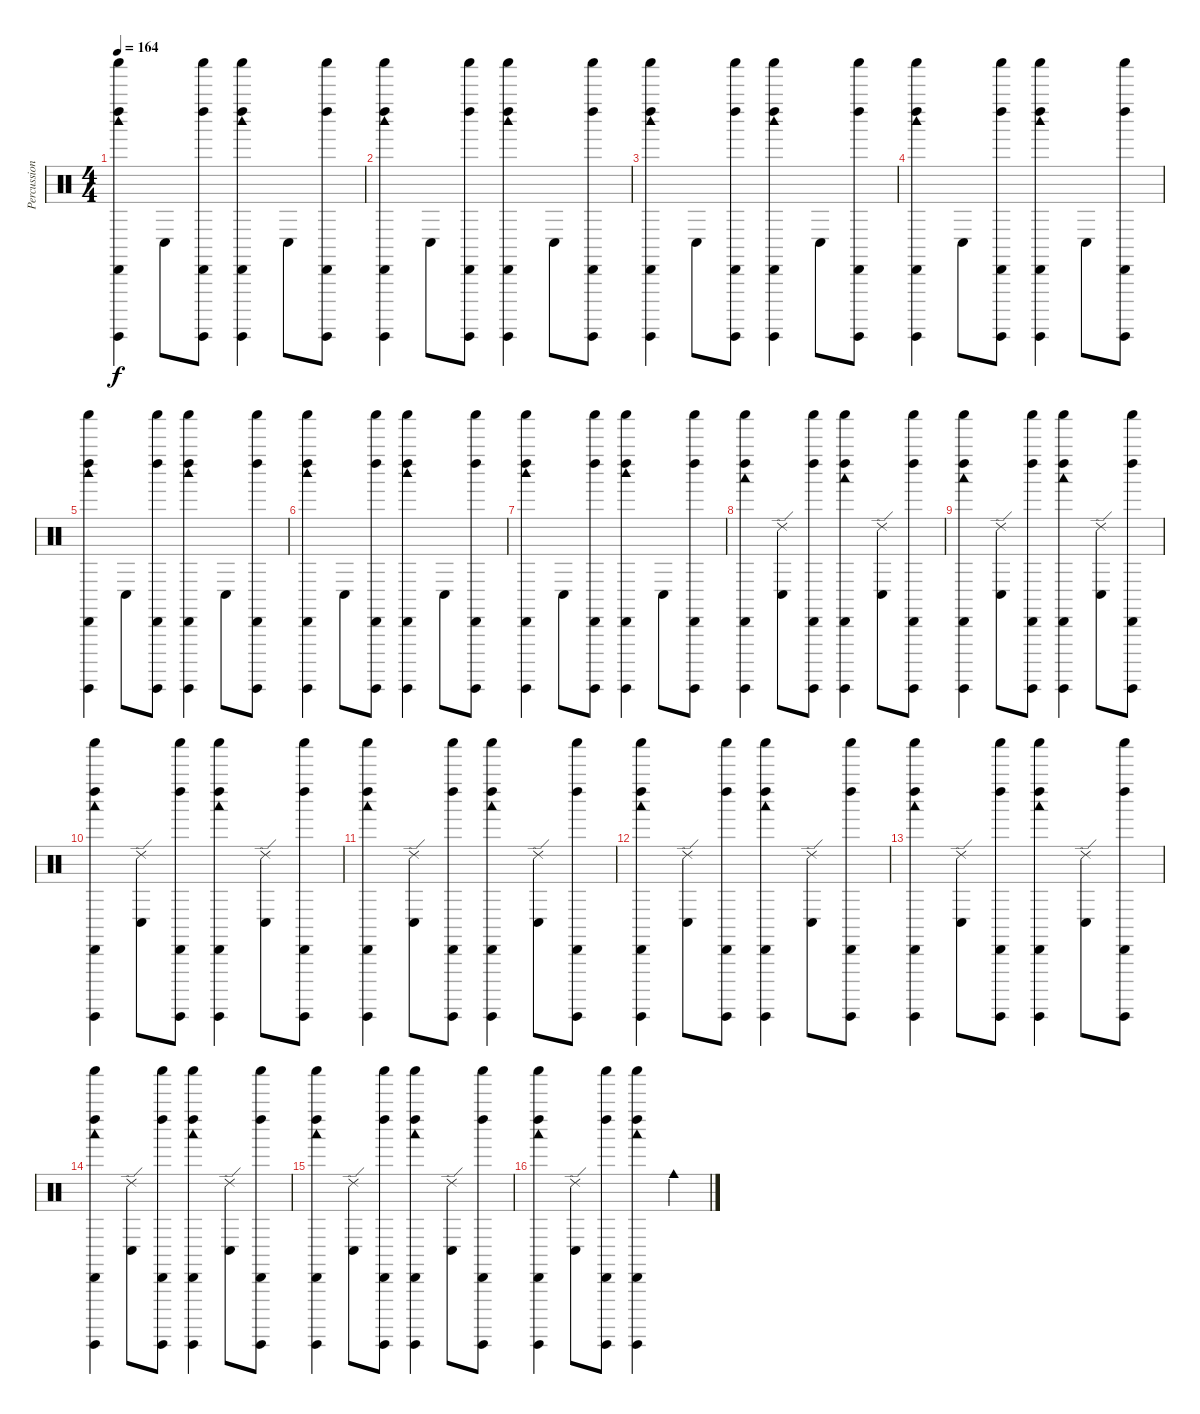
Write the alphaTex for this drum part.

\track ("Percussion" "Percussion") {instrument percussion}
\staff {score}
\articulation defaults
\ts (4 4)
\tempo 164
\clef neutral
\ks c
("Shaker (hit)" "Guiro (hit)" "Left Maraca (hit)" "Cabasa (hit)" "Woodblock high (hit)").4{dy f} "Conga low (hit)".8 ("Shaker (hit)" "Guiro (hit)" "Left Maraca (hit)" "Cabasa (hit)").8 ("Shaker (hit)" "Guiro (hit)" "Left Maraca (hit)" "Cabasa (hit)" "Woodblock high (hit)").4 "Conga low (hit)".8 ("Shaker (hit)" "Guiro (hit)" "Left Maraca (hit)" "Cabasa (hit)").8 |
("Shaker (hit)" "Guiro (hit)" "Left Maraca (hit)" "Cabasa (hit)" "Woodblock high (hit)").4 "Conga low (hit)".8 ("Shaker (hit)" "Guiro (hit)" "Left Maraca (hit)" "Cabasa (hit)").8 ("Shaker (hit)" "Guiro (hit)" "Left Maraca (hit)" "Cabasa (hit)" "Woodblock high (hit)").4 "Conga low (hit)".8 ("Shaker (hit)" "Guiro (hit)" "Left Maraca (hit)" "Cabasa (hit)").8 |
("Shaker (hit)" "Guiro (hit)" "Left Maraca (hit)" "Cabasa (hit)" "Woodblock high (hit)").4 "Conga low (hit)".8 ("Shaker (hit)" "Guiro (hit)" "Left Maraca (hit)" "Cabasa (hit)").8 ("Shaker (hit)" "Guiro (hit)" "Left Maraca (hit)" "Cabasa (hit)" "Woodblock high (hit)").4 "Conga low (hit)".8 ("Shaker (hit)" "Guiro (hit)" "Left Maraca (hit)" "Cabasa (hit)").8 |
("Shaker (hit)" "Guiro (hit)" "Left Maraca (hit)" "Cabasa (hit)" "Woodblock high (hit)").4 "Conga low (hit)".8 ("Shaker (hit)" "Guiro (hit)" "Left Maraca (hit)" "Cabasa (hit)").8 ("Shaker (hit)" "Guiro (hit)" "Left Maraca (hit)" "Cabasa (hit)" "Woodblock high (hit)").4 "Conga low (hit)".8 ("Shaker (hit)" "Guiro (hit)" "Left Maraca (hit)" "Cabasa (hit)").8 |
("Shaker (hit)" "Guiro (hit)" "Left Maraca (hit)" "Cabasa (hit)" "Woodblock high (hit)").4 "Conga low (hit)".8 ("Shaker (hit)" "Guiro (hit)" "Left Maraca (hit)" "Cabasa (hit)").8 ("Shaker (hit)" "Guiro (hit)" "Left Maraca (hit)" "Cabasa (hit)" "Woodblock high (hit)").4 "Conga low (hit)".8 ("Shaker (hit)" "Guiro (hit)" "Left Maraca (hit)" "Cabasa (hit)").8 |
("Shaker (hit)" "Guiro (hit)" "Left Maraca (hit)" "Cabasa (hit)" "Woodblock high (hit)").4 "Conga low (hit)".8 ("Shaker (hit)" "Guiro (hit)" "Left Maraca (hit)" "Cabasa (hit)").8 ("Shaker (hit)" "Guiro (hit)" "Left Maraca (hit)" "Cabasa (hit)" "Woodblock high (hit)").4 "Conga low (hit)".8 ("Shaker (hit)" "Guiro (hit)" "Left Maraca (hit)" "Cabasa (hit)").8 |
("Shaker (hit)" "Guiro (hit)" "Left Maraca (hit)" "Cabasa (hit)" "Woodblock high (hit)").4 "Conga low (hit)".8 ("Shaker (hit)" "Guiro (hit)" "Left Maraca (hit)" "Cabasa (hit)").8 ("Shaker (hit)" "Guiro (hit)" "Left Maraca (hit)" "Cabasa (hit)" "Woodblock high (hit)").4 "Conga low (hit)".8 ("Shaker (hit)" "Guiro (hit)" "Left Maraca (hit)" "Cabasa (hit)").8 |
("Shaker (hit)" "Guiro (hit)" "Left Maraca (hit)" "Cabasa (hit)" "Woodblock low (hit)").4 ("Ride (edge) 2" "Conga low (hit)").8 ("Shaker (hit)" "Guiro (hit)" "Left Maraca (hit)" "Cabasa (hit)").8 ("Shaker (hit)" "Guiro (hit)" "Left Maraca (hit)" "Cabasa (hit)" "Woodblock low (hit)").4 ("Ride (edge) 2" "Conga low (hit)").8 ("Shaker (hit)" "Guiro (hit)" "Left Maraca (hit)" "Cabasa (hit)").8 |
("Shaker (hit)" "Guiro (hit)" "Left Maraca (hit)" "Cabasa (hit)" "Woodblock low (hit)").4 ("Ride (edge) 2" "Conga low (hit)").8 ("Shaker (hit)" "Guiro (hit)" "Left Maraca (hit)" "Cabasa (hit)").8 ("Shaker (hit)" "Guiro (hit)" "Left Maraca (hit)" "Cabasa (hit)" "Woodblock low (hit)").4 ("Ride (edge) 2" "Conga low (hit)").8 ("Shaker (hit)" "Guiro (hit)" "Left Maraca (hit)" "Cabasa (hit)").8 |
("Shaker (hit)" "Guiro (hit)" "Left Maraca (hit)" "Cabasa (hit)" "Woodblock low (hit)").4 ("Ride (edge) 2" "Conga low (hit)").8 ("Shaker (hit)" "Guiro (hit)" "Left Maraca (hit)" "Cabasa (hit)").8 ("Shaker (hit)" "Guiro (hit)" "Left Maraca (hit)" "Cabasa (hit)" "Woodblock low (hit)").4 ("Ride (edge) 2" "Conga low (hit)").8 ("Shaker (hit)" "Guiro (hit)" "Left Maraca (hit)" "Cabasa (hit)").8 |
("Shaker (hit)" "Guiro (hit)" "Left Maraca (hit)" "Cabasa (hit)" "Woodblock low (hit)").4 ("Ride (edge) 2" "Conga low (hit)").8 ("Shaker (hit)" "Guiro (hit)" "Left Maraca (hit)" "Cabasa (hit)").8 ("Shaker (hit)" "Guiro (hit)" "Left Maraca (hit)" "Cabasa (hit)" "Woodblock low (hit)").4 ("Ride (edge) 2" "Conga low (hit)").8 ("Shaker (hit)" "Guiro (hit)" "Left Maraca (hit)" "Cabasa (hit)").8 |
("Shaker (hit)" "Guiro (hit)" "Left Maraca (hit)" "Cabasa (hit)" "Woodblock low (hit)").4 ("Ride (edge) 2" "Conga low (hit)").8 ("Shaker (hit)" "Guiro (hit)" "Left Maraca (hit)" "Cabasa (hit)").8 ("Shaker (hit)" "Guiro (hit)" "Left Maraca (hit)" "Cabasa (hit)" "Woodblock low (hit)").4 ("Ride (edge) 2" "Conga low (hit)").8 ("Shaker (hit)" "Guiro (hit)" "Left Maraca (hit)" "Cabasa (hit)").8 |
("Shaker (hit)" "Guiro (hit)" "Left Maraca (hit)" "Cabasa (hit)" "Woodblock low (hit)").4 ("Ride (edge) 2" "Conga low (hit)").8 ("Shaker (hit)" "Guiro (hit)" "Left Maraca (hit)" "Cabasa (hit)").8 ("Shaker (hit)" "Guiro (hit)" "Left Maraca (hit)" "Cabasa (hit)" "Woodblock low (hit)").4 ("Ride (edge) 2" "Conga low (hit)").8 ("Shaker (hit)" "Guiro (hit)" "Left Maraca (hit)" "Cabasa (hit)").8 |
("Shaker (hit)" "Guiro (hit)" "Left Maraca (hit)" "Cabasa (hit)" "Woodblock low (hit)").4 ("Ride (edge) 2" "Conga low (hit)").8 ("Shaker (hit)" "Guiro (hit)" "Left Maraca (hit)" "Cabasa (hit)").8 ("Shaker (hit)" "Guiro (hit)" "Left Maraca (hit)" "Cabasa (hit)" "Woodblock low (hit)").4 ("Ride (edge) 2" "Conga low (hit)").8 ("Shaker (hit)" "Guiro (hit)" "Left Maraca (hit)" "Cabasa (hit)").8 |
("Shaker (hit)" "Guiro (hit)" "Left Maraca (hit)" "Cabasa (hit)" "Woodblock low (hit)").4 ("Ride (edge) 2" "Conga low (hit)").8 ("Shaker (hit)" "Guiro (hit)" "Left Maraca (hit)" "Cabasa (hit)").8 ("Shaker (hit)" "Guiro (hit)" "Left Maraca (hit)" "Cabasa (hit)" "Woodblock low (hit)").4 ("Ride (edge) 2" "Conga low (hit)").8 ("Shaker (hit)" "Guiro (hit)" "Left Maraca (hit)" "Cabasa (hit)").8 |
("Shaker (hit)" "Guiro (hit)" "Left Maraca (hit)" "Cabasa (hit)" "Woodblock low (hit)").4 ("Ride (edge) 2" "Conga low (hit)").8 ("Shaker (hit)" "Guiro (hit)" "Left Maraca (hit)" "Cabasa (hit)").8 ("Shaker (hit)" "Guiro (hit)" "Left Maraca (hit)" "Cabasa (hit)" "Woodblock low (hit)").4 "Cowbell medium (hit)".4
